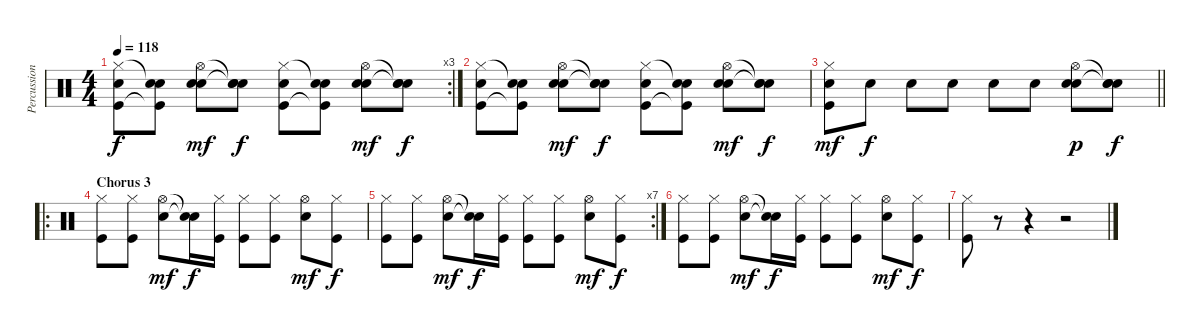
\track ("Percussion" "Percussion") {instrument percussion}
\staff {score}
\articulation defaults
\rc 3
\ts (4 4)
\tempo 118
\clef neutral
\ks c
("Hi-Hat (closed)" "Kick (hit)" "Hand Clap (hit)").8{dy f} ("Snare (hit)"{t} "Kick (hit)"{t} "Hand Clap (hit)").8 ("Hi-Hat (open)" "Electric Snare (hit)" "Hand Clap (hit)").8{dy mf} ("Snare (hit)"{t} "Snare (hit)"{t} "Hand Clap (hit)").8{dy f} ("Hi-Hat (closed)" "Kick (hit)" "Hand Clap (hit)").8 ("Snare (hit)"{t} "Kick (hit)"{t} "Hand Clap (hit)").8 ("Hi-Hat (open)" "Electric Snare (hit)" "Hand Clap (hit)").8{dy mf} ("Snare (hit)"{t} "Snare (hit)"{t} "Hand Clap (hit)").8{dy f} |
("Hi-Hat (closed)" "Kick (hit)" "Hand Clap (hit)").8 ("Snare (hit)"{t} "Kick (hit)"{t} "Hand Clap (hit)").8 ("Hi-Hat (open)" "Electric Snare (hit)" "Hand Clap (hit)").8{dy mf} ("Snare (hit)"{t} "Snare (hit)"{t} "Hand Clap (hit)").8{dy f} ("Hi-Hat (closed)" "Kick (hit)" "Hand Clap (hit)").8 ("Snare (hit)"{t} "Kick (hit)"{t} "Hand Clap (hit)").8 ("Hi-Hat (open)" "Electric Snare (hit)" "Hand Clap (hit)").8{dy mf} ("Snare (hit)"{t} "Snare (hit)"{t} "Hand Clap (hit)").8{dy f} |
\barLineRight lightlight
("Hi-Hat (closed)" "Kick (hit)" "Hand Clap (hit)").8{dy mf} "Hand Clap (hit)".8{dy f} "Hand Clap (hit)".8 "Hand Clap (hit)".8 "Hand Clap (hit)".8 "Hand Clap (hit)".8 ("Hi-Hat (open)" "Electric Snare (hit)" "Hand Clap (hit)").8{dy p} ("Snare (hit)"{t} "Snare (hit)"{t} "Hand Clap (hit)").8{dy f} |
\ro
\section ("" "Chorus 3")
("Hi-Hat (closed)" "Kick (hit)").8 ("Hi-Hat (closed)" "Kick (hit)").8 ("Hi-Hat (open)" "Electric Snare (hit)").8{dy mf} ("Snare (hit)"{t} "Snare (hit)"{t}).16{dy f} ("Hi-Hat (closed)" "Kick (hit)").16 ("Hi-Hat (closed)" "Kick (hit)").8 ("Hi-Hat (closed)" "Kick (hit)").8 ("Hi-Hat (open)" "Electric Snare (hit)").8{dy mf} ("Hi-Hat (closed)" "Kick (hit)").8{dy f} |
\rc 7
("Hi-Hat (closed)" "Kick (hit)").8 ("Hi-Hat (closed)" "Kick (hit)").8 ("Hi-Hat (open)" "Electric Snare (hit)").8{dy mf} ("Snare (hit)"{t} "Snare (hit)"{t}).16{dy f} ("Hi-Hat (closed)" "Kick (hit)").16 ("Hi-Hat (closed)" "Kick (hit)").8 ("Hi-Hat (closed)" "Kick (hit)").8 ("Hi-Hat (open)" "Electric Snare (hit)").8{dy mf} ("Hi-Hat (closed)" "Kick (hit)").8{dy f} |
("Hi-Hat (closed)" "Kick (hit)").8 ("Hi-Hat (closed)" "Kick (hit)").8 ("Hi-Hat (open)" "Electric Snare (hit)").8{dy mf} ("Snare (hit)"{t} "Snare (hit)"{t}).16{dy f} ("Hi-Hat (closed)" "Kick (hit)").16 ("Hi-Hat (closed)" "Kick (hit)").8 ("Hi-Hat (closed)" "Kick (hit)").8 ("Hi-Hat (open)" "Electric Snare (hit)").8{dy mf} ("Hi-Hat (closed)" "Kick (hit)").8{dy f} |
("Hi-Hat (closed)" "Kick (hit)").8 r.8 r.4 r.2
